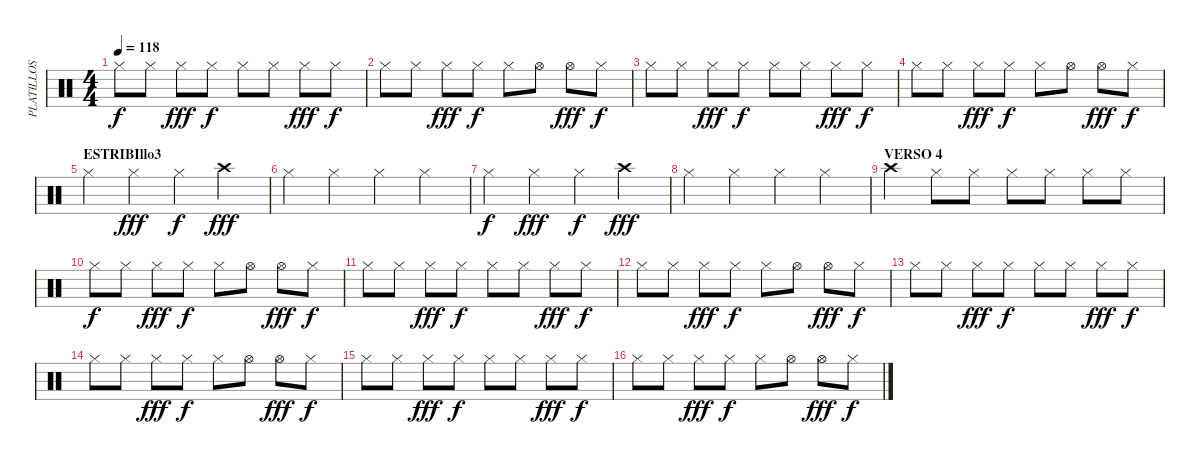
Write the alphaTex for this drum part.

\track ("PLATILLOS" "PLATILLOS") {instrument percussion}
\staff {score}
\articulation defaults
\ts (4 4)
\tempo 118
\clef neutral
\ks c "Hi-Hat (closed)".8{dy f} "Hi-Hat (closed)".8 "Hi-Hat (closed)".8{dy fff} "Hi-Hat (closed)".8{dy f} "Hi-Hat (closed)".8 "Hi-Hat (closed)".8 "Hi-Hat (closed)".8{dy fff} "Hi-Hat (closed)".8{dy f}
|
"Hi-Hat (closed)".8 "Hi-Hat (closed)".8 "Hi-Hat (closed)".8{dy fff} "Hi-Hat (closed)".8{dy f} "Hi-Hat (closed)".8 "Hi-Hat (open)".8 "Hi-Hat (open)".8{dy fff} "Hi-Hat (closed)".8{dy f} |
"Hi-Hat (closed)".8 "Hi-Hat (closed)".8 "Hi-Hat (closed)".8{dy fff} "Hi-Hat (closed)".8{dy f} "Hi-Hat (closed)".8 "Hi-Hat (closed)".8 "Hi-Hat (closed)".8{dy fff} "Hi-Hat (closed)".8{dy f} |
"Hi-Hat (closed)".8 "Hi-Hat (closed)".8 "Hi-Hat (closed)".8{dy fff} "Hi-Hat (closed)".8{dy f} "Hi-Hat (closed)".8 "Hi-Hat (open)".8 "Hi-Hat (open)".8{dy fff} "Hi-Hat (closed)".8{dy f} |
\section ("" "ESTRIBIllo3")
"Hi-Hat (closed)".4 "Hi-Hat (closed)".4{dy fff} "Hi-Hat (closed)".4{dy f} "Crash high (hit)".4{dy fff} |
"Hi-Hat (closed)".4 "Hi-Hat (closed)".4 "Hi-Hat (closed)".4 "Hi-Hat (closed)".4 |
"Hi-Hat (closed)".4{dy f} "Hi-Hat (closed)".4{dy fff} "Hi-Hat (closed)".4{dy f} "Crash high (hit)".4{dy fff} |
"Hi-Hat (closed)".4 "Hi-Hat (closed)".4 "Hi-Hat (closed)".4 "Hi-Hat (closed)".4 |
\section ("" "VERSO 4")
"Crash high (hit)".4 "Hi-Hat (closed)".8 "Hi-Hat (closed)".8 "Hi-Hat (closed)".8 "Hi-Hat (closed)".8 "Hi-Hat (closed)".8 "Hi-Hat (closed)".8 |
"Hi-Hat (closed)".8{dy f} "Hi-Hat (closed)".8 "Hi-Hat (closed)".8{dy fff} "Hi-Hat (closed)".8{dy f} "Hi-Hat (closed)".8 "Hi-Hat (open)".8 "Hi-Hat (open)".8{dy fff} "Hi-Hat (closed)".8{dy f} |
"Hi-Hat (closed)".8 "Hi-Hat (closed)".8 "Hi-Hat (closed)".8{dy fff} "Hi-Hat (closed)".8{dy f} "Hi-Hat (closed)".8 "Hi-Hat (closed)".8 "Hi-Hat (closed)".8{dy fff} "Hi-Hat (closed)".8{dy f} |
"Hi-Hat (closed)".8 "Hi-Hat (closed)".8 "Hi-Hat (closed)".8{dy fff} "Hi-Hat (closed)".8{dy f} "Hi-Hat (closed)".8 "Hi-Hat (open)".8 "Hi-Hat (open)".8{dy fff} "Hi-Hat (closed)".8{dy f} |
"Hi-Hat (closed)".8 "Hi-Hat (closed)".8 "Hi-Hat (closed)".8{dy fff} "Hi-Hat (closed)".8{dy f} "Hi-Hat (closed)".8 "Hi-Hat (closed)".8 "Hi-Hat (closed)".8{dy fff} "Hi-Hat (closed)".8{dy f} |
"Hi-Hat (closed)".8 "Hi-Hat (closed)".8 "Hi-Hat (closed)".8{dy fff} "Hi-Hat (closed)".8{dy f} "Hi-Hat (closed)".8 "Hi-Hat (open)".8 "Hi-Hat (open)".8{dy fff} "Hi-Hat (closed)".8{dy f} |
"Hi-Hat (closed)".8 "Hi-Hat (closed)".8 "Hi-Hat (closed)".8{dy fff} "Hi-Hat (closed)".8{dy f} "Hi-Hat (closed)".8 "Hi-Hat (closed)".8 "Hi-Hat (closed)".8{dy fff} "Hi-Hat (closed)".8{dy f} |
"Hi-Hat (closed)".8 "Hi-Hat (closed)".8 "Hi-Hat (closed)".8{dy fff} "Hi-Hat (closed)".8{dy f} "Hi-Hat (closed)".8 "Hi-Hat (open)".8 "Hi-Hat (open)".8{dy fff} "Hi-Hat (closed)".8{dy f}
